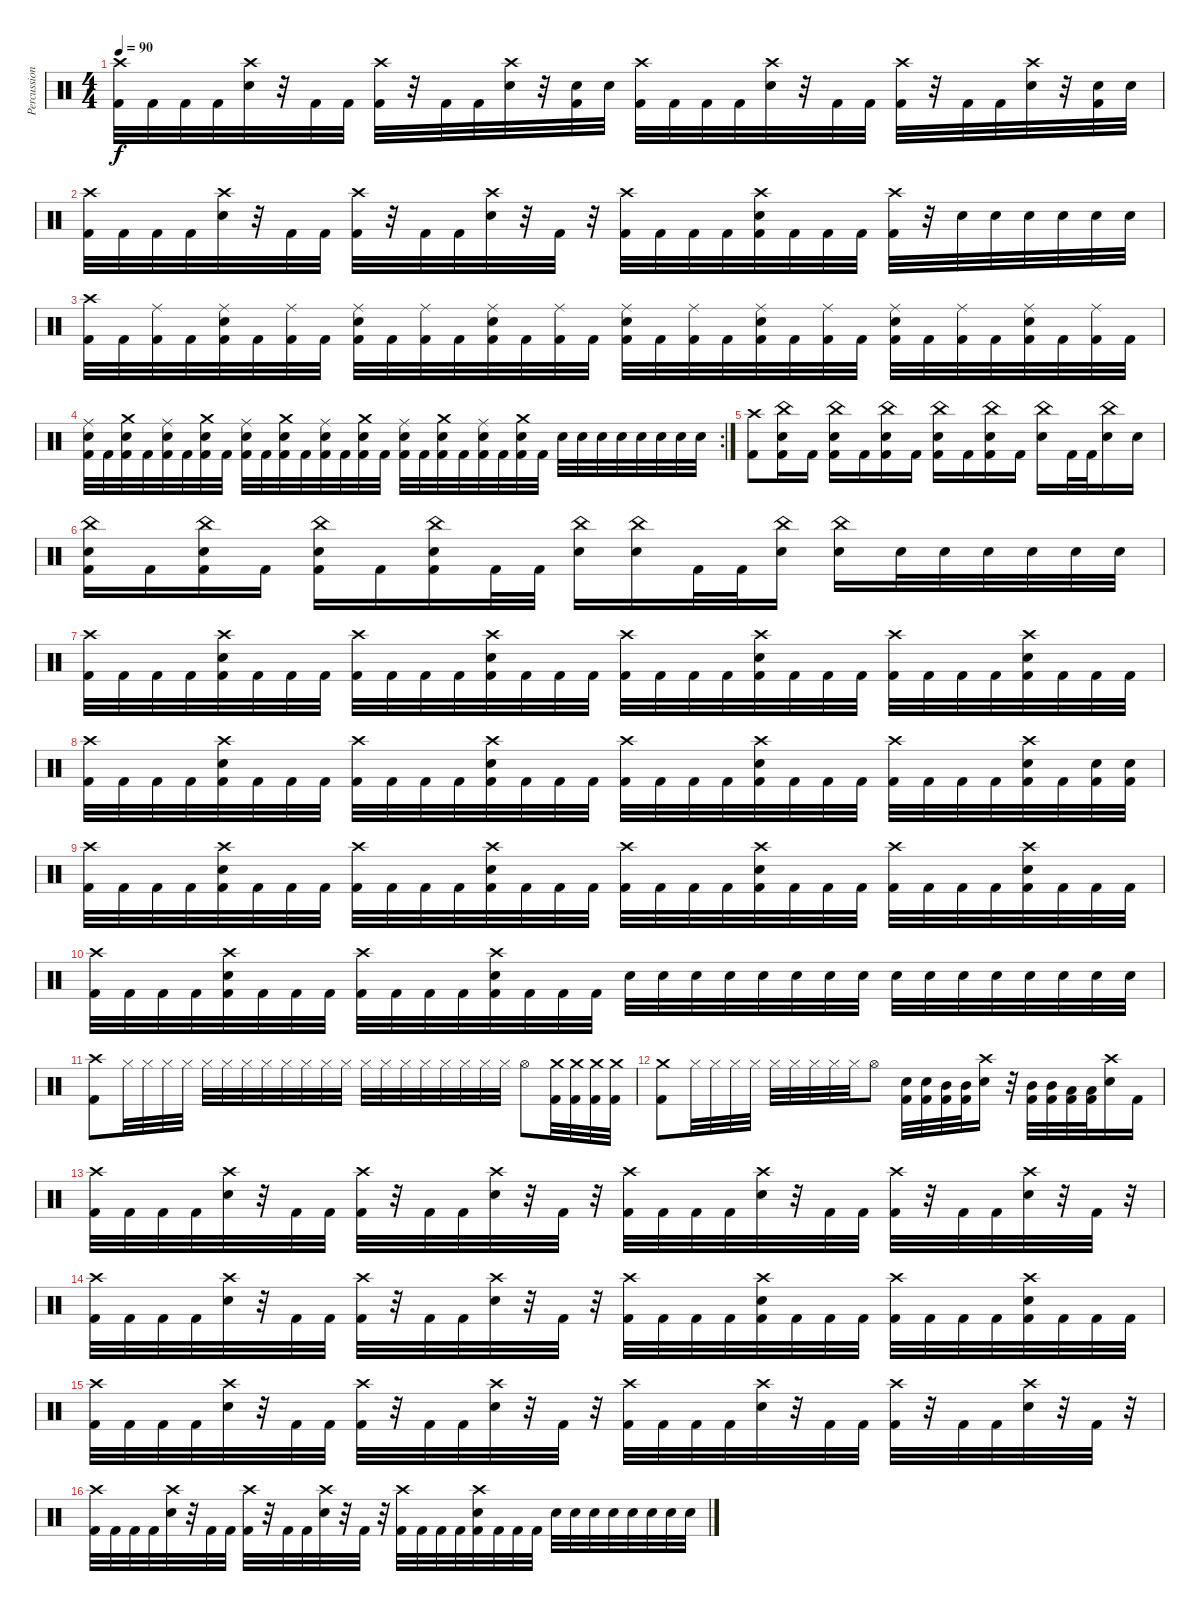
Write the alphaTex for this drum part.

\track ("Percussion" "Percussion") {instrument percussion}
\staff {score}
\articulation defaults
\ts (4 4)
\tempo 90
\clef neutral
\ks c
("Crash high (hit)" "Kick (hit) 2").32{dy f} "Kick (hit) 2".32 "Kick (hit) 2".32 "Kick (hit) 2".32 ("Crash high (hit)" "Electric Snare (hit)").32 r.32 "Kick (hit) 2".32 "Kick (hit) 2".32 ("Crash high (hit)" "Kick (hit) 2").32 r.32 "Kick (hit) 2".32 "Kick (hit) 2".32 ("Crash high (hit)" "Electric Snare (hit)").32 r.32 ("Electric Snare (hit)" "Kick (hit) 2").32 "Electric Snare (hit)".32 ("Crash high (hit)" "Kick (hit) 2").32 "Kick (hit) 2".32 "Kick (hit) 2".32 "Kick (hit) 2".32 ("Crash high (hit)" "Electric Snare (hit)").32 r.32 "Kick (hit) 2".32 "Kick (hit) 2".32 ("Crash high (hit)" "Kick (hit) 2").32 r.32 "Kick (hit) 2".32 "Kick (hit) 2".32 ("Crash high (hit)" "Electric Snare (hit)").32 r.32 ("Electric Snare (hit)" "Kick (hit) 2").32 "Electric Snare (hit)".32 |
("Crash high (hit)" "Kick (hit) 2").32 "Kick (hit) 2".32 "Kick (hit) 2".32 "Kick (hit) 2".32 ("Crash high (hit)" "Electric Snare (hit)").32 r.32 "Kick (hit) 2".32 "Kick (hit) 2".32 ("Crash high (hit)" "Kick (hit) 2").32 r.32 "Kick (hit) 2".32 "Kick (hit) 2".32 ("Crash high (hit)" "Electric Snare (hit)").32 r.32 "Kick (hit) 2".32 r.32 ("Crash high (hit)" "Kick (hit) 2").32 "Kick (hit) 2".32 "Kick (hit) 2".32 "Kick (hit) 2".32 ("Crash high (hit)" "Electric Snare (hit)" "Kick (hit) 2").32 "Kick (hit) 2".32 "Kick (hit) 2".32 "Kick (hit) 2".32 ("Crash high (hit)" "Kick (hit) 2").32 r.32 "Electric Snare (hit)".32 "Electric Snare (hit)".32 "Electric Snare (hit)".32 "Electric Snare (hit)".32 "Electric Snare (hit)".32 "Electric Snare (hit)".32 |
("Crash high (hit)" "Kick (hit) 2").32 "Kick (hit) 2".32 ("Ride (middle)" "Kick (hit) 2").32 "Kick (hit) 2".32 ("Ride (middle)" "Electric Snare (hit)" "Kick (hit) 2").32 "Kick (hit) 2".32 ("Ride (middle)" "Kick (hit) 2").32 "Kick (hit) 2".32 ("Ride (middle)" "Electric Snare (hit)" "Kick (hit) 2").32 "Kick (hit) 2".32 ("Ride (middle)" "Kick (hit) 2").32 "Kick (hit) 2".32 ("Ride (middle)" "Electric Snare (hit)" "Kick (hit) 2").32 "Kick (hit) 2".32 ("Ride (middle)" "Kick (hit) 2").32 "Kick (hit) 2".32 ("Ride (middle)" "Electric Snare (hit)" "Kick (hit) 2").32 "Kick (hit) 2".32 ("Ride (middle)" "Kick (hit) 2").32 "Kick (hit) 2".32 ("Ride (middle)" "Electric Snare (hit)" "Kick (hit) 2").32 "Kick (hit) 2".32 ("Ride (middle)" "Kick (hit) 2").32 "Kick (hit) 2".32 ("Ride (middle)" "Electric Snare (hit)" "Kick (hit) 2").32 "Kick (hit) 2".32 ("Ride (middle)" "Kick (hit) 2").32 "Kick (hit) 2".32 ("Ride (middle)" "Electric Snare (hit)" "Kick (hit) 2").32 "Kick (hit) 2".32 ("Ride (middle)" "Kick (hit) 2").32 "Kick (hit) 2".32 |
\rc 2
("Ride (middle)" "Electric Snare (hit)" "Kick (hit) 2").32 "Kick (hit) 2".32 ("Crash medium (hit)" "Electric Snare (hit)" "Kick (hit) 2").32 "Kick (hit) 2".32 ("Ride (middle)" "Electric Snare (hit)" "Kick (hit) 2").32 "Kick (hit) 2".32 ("Crash medium (hit)" "Electric Snare (hit)" "Kick (hit) 2").32 "Kick (hit) 2".32 ("Ride (middle)" "Electric Snare (hit)" "Kick (hit) 2").32 "Kick (hit) 2".32 ("Crash medium (hit)" "Electric Snare (hit)" "Kick (hit) 2").32 "Kick (hit) 2".32 ("Ride (middle)" "Electric Snare (hit)" "Kick (hit) 2").32 "Kick (hit) 2".32 ("Crash medium (hit)" "Electric Snare (hit)" "Kick (hit) 2").32 "Kick (hit) 2".32 ("Ride (middle)" "Electric Snare (hit)" "Kick (hit) 2").32 "Kick (hit) 2".32 ("Crash medium (hit)" "Electric Snare (hit)" "Kick (hit) 2").32 "Kick (hit) 2".32 ("Ride (middle)" "Electric Snare (hit)" "Kick (hit) 2").32 "Kick (hit) 2".32 ("Crash medium (hit)" "Electric Snare (hit)" "Kick (hit) 2").32 "Kick (hit) 2".32 "Electric Snare (hit)".32 "Electric Snare (hit)".32 "Electric Snare (hit)".32 "Electric Snare (hit)".32 "Electric Snare (hit)".32 "Electric Snare (hit)".32 "Electric Snare (hit)".32 "Electric Snare (hit)".32 |
("Crash high (hit)" "Kick (hit) 2").8 ("China (hit)" "Electric Snare (hit)" "Kick (hit) 2").16 "Kick (hit) 2".16 ("China (hit)" "Electric Snare (hit)" "Kick (hit) 2").16 "Kick (hit) 2".16 ("China (hit)" "Electric Snare (hit)" "Kick (hit) 2").16 "Kick (hit) 2".16 ("China (hit)" "Electric Snare (hit)" "Kick (hit) 2").16 "Kick (hit) 2".16 ("China (hit)" "Electric Snare (hit)" "Kick (hit) 2").16 "Kick (hit) 2".16 ("China (hit)" "Electric Snare (hit)").16 "Kick (hit) 2".32 "Kick (hit) 2".32 ("China (hit)" "Electric Snare (hit)").16 "Electric Snare (hit)".16 |
("China (hit)" "Electric Snare (hit)" "Kick (hit) 2").16 "Kick (hit) 2".16 ("China (hit)" "Electric Snare (hit)" "Kick (hit) 2").16 "Kick (hit) 2".16 ("China (hit)" "Electric Snare (hit)" "Kick (hit) 2").16 "Kick (hit) 2".16 ("China (hit)" "Electric Snare (hit)" "Kick (hit) 2").16 "Kick (hit) 2".32 "Kick (hit) 2".32 ("China (hit)" "Electric Snare (hit)").16 ("China (hit)" "Electric Snare (hit)").16 "Kick (hit) 2".32 "Kick (hit) 2".32 ("China (hit)" "Electric Snare (hit)").16 ("China (hit)" "Electric Snare (hit)").16 "Electric Snare (hit)".32 "Electric Snare (hit)".32 "Electric Snare (hit)".32 "Electric Snare (hit)".32 "Electric Snare (hit)".32 "Electric Snare (hit)".32 |
("Crash high (hit)" "Kick (hit) 2").32 "Kick (hit) 2".32 "Kick (hit) 2".32 "Kick (hit) 2".32 ("Crash high (hit)" "Electric Snare (hit)" "Kick (hit) 2").32 "Kick (hit) 2".32 "Kick (hit) 2".32 "Kick (hit) 2".32 ("Crash high (hit)" "Kick (hit) 2").32 "Kick (hit) 2".32 "Kick (hit) 2".32 "Kick (hit) 2".32 ("Crash high (hit)" "Electric Snare (hit)" "Kick (hit) 2").32 "Kick (hit) 2".32 "Kick (hit) 2".32 "Kick (hit) 2".32 ("Crash high (hit)" "Kick (hit) 2").32 "Kick (hit) 2".32 "Kick (hit) 2".32 "Kick (hit) 2".32 ("Crash high (hit)" "Electric Snare (hit)" "Kick (hit) 2").32 "Kick (hit) 2".32 "Kick (hit) 2".32 "Kick (hit) 2".32 ("Crash high (hit)" "Kick (hit) 2").32 "Kick (hit) 2".32 "Kick (hit) 2".32 "Kick (hit) 2".32 ("Crash high (hit)" "Electric Snare (hit)" "Kick (hit) 2").32 "Kick (hit) 2".32 "Kick (hit) 2".32 "Kick (hit) 2".32 |
("Crash high (hit)" "Kick (hit) 2").32 "Kick (hit) 2".32 "Kick (hit) 2".32 "Kick (hit) 2".32 ("Crash high (hit)" "Electric Snare (hit)" "Kick (hit) 2").32 "Kick (hit) 2".32 "Kick (hit) 2".32 "Kick (hit) 2".32 ("Crash high (hit)" "Kick (hit) 2").32 "Kick (hit) 2".32 "Kick (hit) 2".32 "Kick (hit) 2".32 ("Crash high (hit)" "Electric Snare (hit)" "Kick (hit) 2").32 "Kick (hit) 2".32 "Kick (hit) 2".32 "Kick (hit) 2".32 ("Crash high (hit)" "Kick (hit) 2").32 "Kick (hit) 2".32 "Kick (hit) 2".32 "Kick (hit) 2".32 ("Crash high (hit)" "Electric Snare (hit)" "Kick (hit) 2").32 "Kick (hit) 2".32 "Kick (hit) 2".32 "Kick (hit) 2".32 ("Crash high (hit)" "Kick (hit) 2").32 "Kick (hit) 2".32 "Kick (hit) 2".32 "Kick (hit) 2".32 ("Crash high (hit)" "Electric Snare (hit)" "Kick (hit) 2").32 "Kick (hit) 2".32 ("Electric Snare (hit)" "Kick (hit) 2").32 ("Electric Snare (hit)" "Kick (hit) 2").32 |
("Crash high (hit)" "Kick (hit) 2").32 "Kick (hit) 2".32 "Kick (hit) 2".32 "Kick (hit) 2".32 ("Crash high (hit)" "Electric Snare (hit)" "Kick (hit) 2").32 "Kick (hit) 2".32 "Kick (hit) 2".32 "Kick (hit) 2".32 ("Crash high (hit)" "Kick (hit) 2").32 "Kick (hit) 2".32 "Kick (hit) 2".32 "Kick (hit) 2".32 ("Crash high (hit)" "Electric Snare (hit)" "Kick (hit) 2").32 "Kick (hit) 2".32 "Kick (hit) 2".32 "Kick (hit) 2".32 ("Crash high (hit)" "Kick (hit) 2").32 "Kick (hit) 2".32 "Kick (hit) 2".32 "Kick (hit) 2".32 ("Crash high (hit)" "Electric Snare (hit)" "Kick (hit) 2").32 "Kick (hit) 2".32 "Kick (hit) 2".32 "Kick (hit) 2".32 ("Crash high (hit)" "Kick (hit) 2").32 "Kick (hit) 2".32 "Kick (hit) 2".32 "Kick (hit) 2".32 ("Crash high (hit)" "Electric Snare (hit)" "Kick (hit) 2").32 "Kick (hit) 2".32 "Kick (hit) 2".32 "Kick (hit) 2".32 |
("Crash high (hit)" "Kick (hit) 2").32 "Kick (hit) 2".32 "Kick (hit) 2".32 "Kick (hit) 2".32 ("Crash high (hit)" "Electric Snare (hit)" "Kick (hit) 2").32 "Kick (hit) 2".32 "Kick (hit) 2".32 "Kick (hit) 2".32 ("Crash high (hit)" "Kick (hit) 2").32 "Kick (hit) 2".32 "Kick (hit) 2".32 "Kick (hit) 2".32 ("Crash high (hit)" "Electric Snare (hit)" "Kick (hit) 2").32 "Kick (hit) 2".32 "Kick (hit) 2".32 "Kick (hit) 2".32 "Electric Snare (hit)".32 "Electric Snare (hit)".32 "Electric Snare (hit)".32 "Electric Snare (hit)".32 "Electric Snare (hit)".32 "Electric Snare (hit)".32 "Electric Snare (hit)".32 "Electric Snare (hit)".32 "Electric Snare (hit)".32 "Electric Snare (hit)".32 "Electric Snare (hit)".32 "Electric Snare (hit)".32 "Electric Snare (hit)".32 "Electric Snare (hit)".32 "Electric Snare (hit)".32 "Electric Snare (hit)".32 |
("Crash high (hit)" "Kick (hit) 2").8 "Hi-Hat (closed)".32 "Hi-Hat (closed)".32 "Hi-Hat (closed)".32 "Hi-Hat (closed)".32 "Hi-Hat (closed)".32 "Hi-Hat (closed)".32 "Hi-Hat (closed)".32 "Hi-Hat (closed)".32 "Hi-Hat (closed)".32 "Hi-Hat (closed)".32 "Hi-Hat (closed)".32 "Hi-Hat (closed)".32 "Hi-Hat (closed)".32 "Hi-Hat (closed)".32 "Hi-Hat (closed)".32 "Hi-Hat (closed)".32 "Hi-Hat (closed)".32 "Hi-Hat (closed)".32 "Hi-Hat (closed)".32 "Hi-Hat (closed)".32 "Hi-Hat (open)".8 ("Crash medium (hit)" "Kick (hit) 2").32 ("Crash medium (hit)" "Kick (hit) 2").32 ("Crash medium (hit)" "Kick (hit) 2").32 ("Crash medium (hit)" "Kick (hit) 2").32 |
("Crash medium (hit)" "Kick (hit) 2").8 "Hi-Hat (closed)".32 "Hi-Hat (closed)".32 "Hi-Hat (closed)".32 "Hi-Hat (closed)".32 "Hi-Hat (closed)".32 "Hi-Hat (closed)".32 "Hi-Hat (closed)".32 "Hi-Hat (closed)".32 "Hi-Hat (closed)".32 "Hi-Hat (open)".8 ("Electric Snare (hit)" "Kick (hit) 2").32 ("Electric Snare (hit)" "Kick (hit) 2").32 ("Mid Tom (hit)" "Kick (hit) 2").32 ("Mid Tom (hit)" "Kick (hit) 2").32 ("Crash high (hit)" "Electric Snare (hit)").16 r.32 ("Mid Tom (hit)" "Kick (hit) 2").32 ("Mid Tom (hit)" "Kick (hit) 2").32 ("Low Tom (hit)" "Kick (hit) 2").32 ("Low Tom (hit)" "Kick (hit) 2").32 ("Crash high (hit)" "Electric Snare (hit)").16 "Kick (hit) 2".16 |
("Crash high (hit)" "Kick (hit) 2").32 "Kick (hit) 2".32 "Kick (hit) 2".32 "Kick (hit) 2".32 ("Crash high (hit)" "Electric Snare (hit)").32 r.32 "Kick (hit) 2".32 "Kick (hit) 2".32 ("Crash high (hit)" "Kick (hit) 2").32 r.32 "Kick (hit) 2".32 "Kick (hit) 2".32 ("Crash high (hit)" "Electric Snare (hit)").32 r.32 "Kick (hit) 2".32 r.32 ("Crash high (hit)" "Kick (hit) 2").32 "Kick (hit) 2".32 "Kick (hit) 2".32 "Kick (hit) 2".32 ("Crash high (hit)" "Electric Snare (hit)").32 r.32 "Kick (hit) 2".32 "Kick (hit) 2".32 ("Crash high (hit)" "Kick (hit) 2").32 r.32 "Kick (hit) 2".32 "Kick (hit) 2".32 ("Crash high (hit)" "Electric Snare (hit)").32 r.32 "Kick (hit) 2".32 r.32 |
("Crash high (hit)" "Kick (hit) 2").32 "Kick (hit) 2".32 "Kick (hit) 2".32 "Kick (hit) 2".32 ("Crash high (hit)" "Electric Snare (hit)").32 r.32 "Kick (hit) 2".32 "Kick (hit) 2".32 ("Crash high (hit)" "Kick (hit) 2").32 r.32 "Kick (hit) 2".32 "Kick (hit) 2".32 ("Crash high (hit)" "Electric Snare (hit)").32 r.32 "Kick (hit) 2".32 r.32 ("Crash high (hit)" "Kick (hit) 2").32 "Kick (hit) 2".32 "Kick (hit) 2".32 "Kick (hit) 2".32 ("Crash high (hit)" "Electric Snare (hit)" "Kick (hit) 2").32 "Kick (hit) 2".32 "Kick (hit) 2".32 "Kick (hit) 2".32 ("Crash high (hit)" "Kick (hit) 2").32 "Kick (hit) 2".32 "Kick (hit) 2".32 "Kick (hit) 2".32 ("Crash high (hit)" "Electric Snare (hit)" "Kick (hit) 2").32 "Kick (hit) 2".32 "Kick (hit) 2".32 "Kick (hit) 2".32 |
("Crash high (hit)" "Kick (hit) 2").32 "Kick (hit) 2".32 "Kick (hit) 2".32 "Kick (hit) 2".32 ("Crash high (hit)" "Electric Snare (hit)").32 r.32 "Kick (hit) 2".32 "Kick (hit) 2".32 ("Crash high (hit)" "Kick (hit) 2").32 r.32 "Kick (hit) 2".32 "Kick (hit) 2".32 ("Crash high (hit)" "Electric Snare (hit)").32 r.32 "Kick (hit) 2".32 r.32 ("Crash high (hit)" "Kick (hit) 2").32 "Kick (hit) 2".32 "Kick (hit) 2".32 "Kick (hit) 2".32 ("Crash high (hit)" "Electric Snare (hit)").32 r.32 "Kick (hit) 2".32 "Kick (hit) 2".32 ("Crash high (hit)" "Kick (hit) 2").32 r.32 "Kick (hit) 2".32 "Kick (hit) 2".32 ("Crash high (hit)" "Electric Snare (hit)").32 r.32 "Kick (hit) 2".32 r.32 |
("Crash high (hit)" "Kick (hit) 2").32 "Kick (hit) 2".32 "Kick (hit) 2".32 "Kick (hit) 2".32 ("Crash high (hit)" "Electric Snare (hit)").32 r.32 "Kick (hit) 2".32 "Kick (hit) 2".32 ("Crash high (hit)" "Kick (hit) 2").32 r.32 "Kick (hit) 2".32 "Kick (hit) 2".32 ("Crash high (hit)" "Electric Snare (hit)").32 r.32 "Kick (hit) 2".32 r.32 ("Crash high (hit)" "Kick (hit) 2").32 "Kick (hit) 2".32 "Kick (hit) 2".32 "Kick (hit) 2".32 ("Crash high (hit)" "Electric Snare (hit)" "Kick (hit) 2").32 "Kick (hit) 2".32 "Kick (hit) 2".32 "Kick (hit) 2".32 "Electric Snare (hit)".32 "Electric Snare (hit)".32 "Electric Snare (hit)".32 "Electric Snare (hit)".32 "Electric Snare (hit)".32 "Electric Snare (hit)".32 "Electric Snare (hit)".32 "Electric Snare (hit)".32
